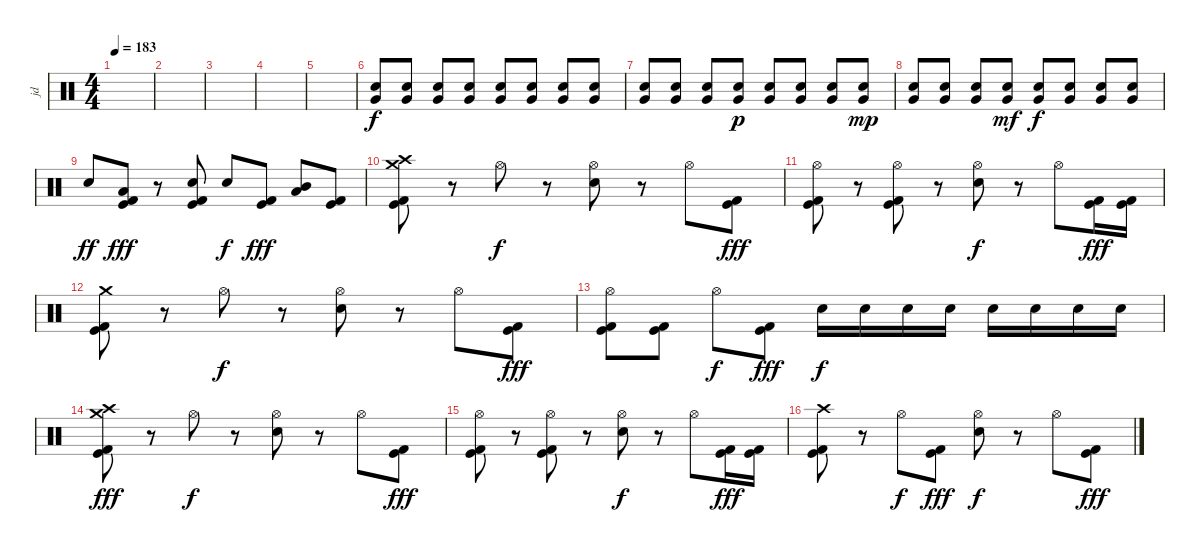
\track ("jd" "jd") {instrument percussion}
\staff {score}
\articulation defaults
\ts (4 4)
\tempo 183
\clef neutral
\ks c
|
|
|
|
|
("Electric Snare (hit)" "Very Low Tom (hit)").8 ("Electric Snare (hit)" "Very Low Tom (hit)").8 ("Electric Snare (hit)" "Very Low Tom (hit)").8 ("Electric Snare (hit)" "Very Low Tom (hit)").8 ("Electric Snare (hit)" "Very Low Tom (hit)").8 ("Electric Snare (hit)" "Very Low Tom (hit)").8 ("Electric Snare (hit)" "Very Low Tom (hit)").8 ("Electric Snare (hit)" "Very Low Tom (hit)").8 |
("Electric Snare (hit)" "Very Low Tom (hit)").8 ("Electric Snare (hit)" "Very Low Tom (hit)").8 ("Electric Snare (hit)" "Very Low Tom (hit)").8 ("Electric Snare (hit)" "Very Low Tom (hit)").8{dy p} ("Electric Snare (hit)" "Very Low Tom (hit)").8 ("Electric Snare (hit)" "Very Low Tom (hit)").8 ("Electric Snare (hit)" "Very Low Tom (hit)").8 ("Electric Snare (hit)" "Very Low Tom (hit)").8{dy mp} |
("Electric Snare (hit)" "Very Low Tom (hit)").8 ("Electric Snare (hit)" "Very Low Tom (hit)").8 ("Electric Snare (hit)" "Very Low Tom (hit)").8 ("Electric Snare (hit)" "Very Low Tom (hit)").8{dy mf} ("Electric Snare (hit)" "Very Low Tom (hit)").8{dy f} ("Electric Snare (hit)" "Very Low Tom (hit)").8 ("Electric Snare (hit)" "Very Low Tom (hit)").8 ("Electric Snare (hit)" "Very Low Tom (hit)").8 |
"Electric Snare (hit)".8{dy ff} ("Kick (hit)" "Kick (hit) 2" "Low Tom (hit)").8{dy fff} r.8 ("Kick (hit)" "Kick (hit) 2" "Electric Snare (hit)").8 "Electric Snare (hit)".8{dy f} ("Kick (hit)" "Kick (hit) 2").8{dy fff} ("Low Tom (hit)" "Mid Tom (hit)").8 ("Kick (hit)" "Kick (hit) 2").8 |
("Kick (hit)" "Kick (hit) 2" "Crash high (hit)" "Crash medium (hit)").8 r.8 "Hi-Hat (open)".8{dy f} r.8 ("Electric Snare (hit)" "Hi-Hat (open)").8 r.8 "Hi-Hat (open)".8 ("Kick (hit)" "Kick (hit) 2").8{dy fff} |
("Kick (hit)" "Kick (hit) 2" "Hi-Hat (open)").8 r.8 ("Kick (hit)" "Kick (hit) 2" "Hi-Hat (open)").8 r.8 ("Electric Snare (hit)" "Hi-Hat (open)").8{dy f} r.8 "Hi-Hat (open)".8 ("Kick (hit)" "Kick (hit) 2").16{dy fff} ("Kick (hit)" "Kick (hit) 2").16 |
("Kick (hit)" "Kick (hit) 2" "Crash medium (hit)").8 r.8 "Hi-Hat (open)".8{dy f} r.8 ("Electric Snare (hit)" "Hi-Hat (open)").8 r.8 "Hi-Hat (open)".8 ("Kick (hit)" "Kick (hit) 2").8{dy fff} |
("Kick (hit)" "Kick (hit) 2" "Hi-Hat (open)").8 ("Kick (hit)" "Kick (hit) 2").8 "Hi-Hat (open)".8{dy f} ("Kick (hit)" "Kick (hit) 2").8{dy fff} "Electric Snare (hit)".16{dy f} "Electric Snare (hit)".16 "Electric Snare (hit)".16 "Electric Snare (hit)".16 "Electric Snare (hit)".16 "Electric Snare (hit)".16 "Electric Snare (hit)".16 "Electric Snare (hit)".16 |
("Kick (hit)" "Kick (hit) 2" "Crash high (hit)" "Crash medium (hit)").8{dy fff} r.8 "Hi-Hat (open)".8{dy f} r.8 ("Electric Snare (hit)" "Hi-Hat (open)").8 r.8 "Hi-Hat (open)".8 ("Kick (hit)" "Kick (hit) 2").8{dy fff} |
("Kick (hit)" "Kick (hit) 2" "Hi-Hat (open)").8 r.8 ("Kick (hit)" "Kick (hit) 2" "Hi-Hat (open)").8 r.8 ("Electric Snare (hit)" "Hi-Hat (open)").8{dy f} r.8 "Hi-Hat (open)".8 ("Kick (hit)" "Kick (hit) 2").16{dy fff} ("Kick (hit)" "Kick (hit) 2").16 |
("Kick (hit)" "Kick (hit) 2" "Crash high (hit)").8 r.8 "Hi-Hat (open)".8{dy f} ("Kick (hit)" "Kick (hit) 2").8{dy fff} ("Electric Snare (hit)" "Hi-Hat (open)").8{dy f} r.8 "Hi-Hat (open)".8 ("Kick (hit)" "Kick (hit) 2").8{dy fff}
